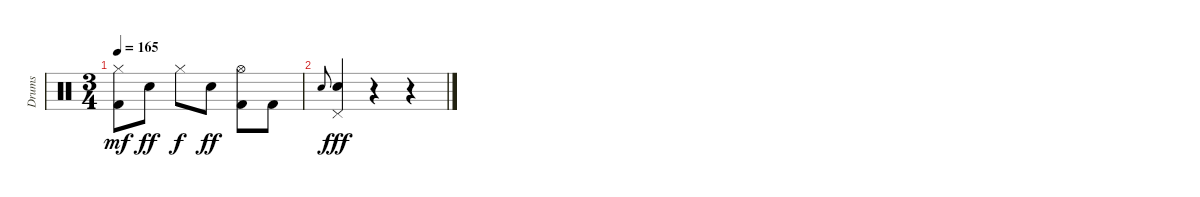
\track ("Drums" "Drums") {instrument percussion}
\staff {score}
\articulation defaults
\ts (3 4)
\tempo 165
\clef neutral
\ks c
("Hi-Hat (closed)" "Kick (hit) 2").8{dy mf} "Snare (hit) 2".8{dy ff} "Hi-Hat (closed)".8{dy f} "Snare (hit) 2".8{dy ff} ("Hi-Hat (open)" "Kick (hit) 2").8 "Kick (hit) 2".8 |
"Snare (hit) 2".8{gr onbeat} ("Pedal Hi-Hat (hit)" "Snare (hit) 2").4{dy fff} r.4 r.4
